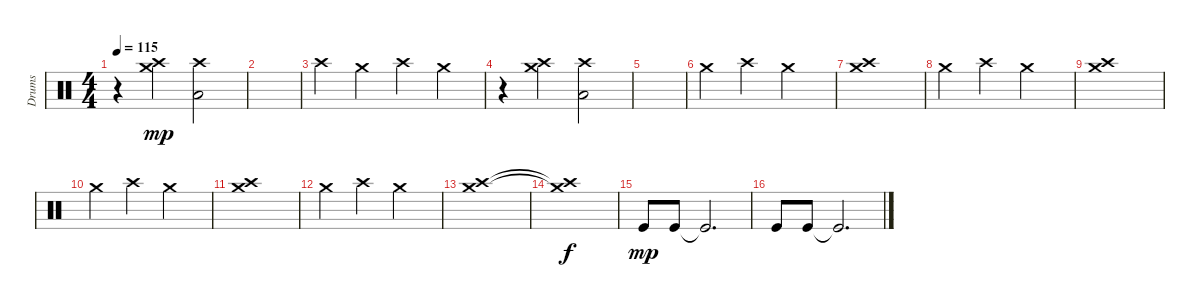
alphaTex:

\track ("Drums" "Drums") {instrument percussion}
\staff {score}
\articulation defaults
\ts (4 4)
\tempo 115
\clef neutral
\ks c
r.4{dy mp} ("Crash high (hit)" "Crash medium (hit)").4 ("Crash high (hit)" "Low Floor Tom (hit)").2 |
|
"Crash high (hit)".4 "Crash medium (hit)".4 "Crash high (hit)".4 "Crash medium (hit)".4 |
r.4 ("Crash high (hit)" "Crash medium (hit)").4 ("Crash high (hit)" "Low Floor Tom (hit)").2 |
|
"Crash medium (hit)".4 "Crash high (hit)".4 "Crash medium (hit)".2 |
("Crash high (hit)" "Crash medium (hit)").1 |
"Crash medium (hit)".4 "Crash high (hit)".4 "Crash medium (hit)".2 |
("Crash high (hit)" "Crash medium (hit)").1 |
"Crash medium (hit)".4 "Crash high (hit)".4 "Crash medium (hit)".2 |
("Crash high (hit)" "Crash medium (hit)").1 |
"Crash medium (hit)".4 "Crash high (hit)".4 "Crash medium (hit)".2 |
("Crash high (hit)" "Crash medium (hit)").1 |
("Crash high (hit)"{t} "Crash medium (hit)"{t}).1{dy f} |
"Kick (hit)".8{dy mp} "Kick (hit)".8 "Kick (hit)"{t}.2{d} |
"Kick (hit)".8 "Kick (hit)".8 "Kick (hit)"{t}.2{d}
